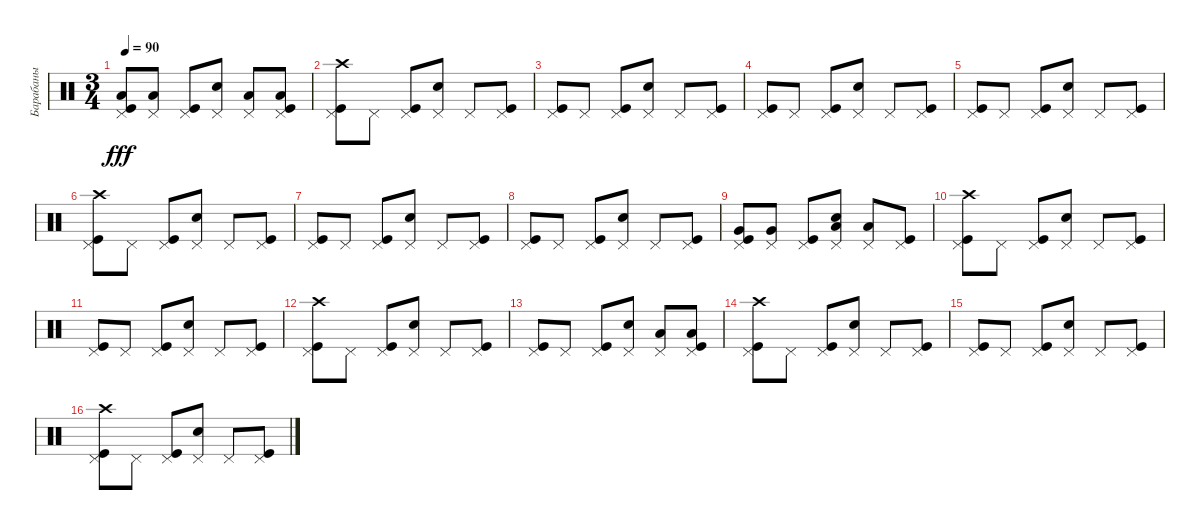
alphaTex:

\track ("Барабаны" "Барабаны") {instrument percussion}
\staff {score}
\articulation defaults
\ts (3 4)
\tempo 90
\clef neutral
\ks c
("Kick (hit)" "Pedal Hi-Hat (hit)" "Low Floor Tom (hit)").8{dy fff} ("Pedal Hi-Hat (hit)" "Low Floor Tom (hit)").8 ("Kick (hit)" "Pedal Hi-Hat (hit)").8 ("Snare (hit) 2" "Pedal Hi-Hat (hit)").8 ("Pedal Hi-Hat (hit)" "Low Tom (hit)").8 ("Kick (hit)" "Pedal Hi-Hat (hit)" "Low Tom (hit)").8 |
("Kick (hit)" "Pedal Hi-Hat (hit)" "Crash high (hit)").8 "Pedal Hi-Hat (hit)".8 ("Kick (hit)" "Pedal Hi-Hat (hit)").8 ("Snare (hit) 2" "Pedal Hi-Hat (hit)").8 "Pedal Hi-Hat (hit)".8 ("Kick (hit)" "Pedal Hi-Hat (hit)").8 |
("Kick (hit)" "Pedal Hi-Hat (hit)").8 "Pedal Hi-Hat (hit)".8 ("Kick (hit)" "Pedal Hi-Hat (hit)").8 ("Snare (hit) 2" "Pedal Hi-Hat (hit)").8 "Pedal Hi-Hat (hit)".8 ("Kick (hit)" "Pedal Hi-Hat (hit)").8 |
("Kick (hit)" "Pedal Hi-Hat (hit)").8 "Pedal Hi-Hat (hit)".8 ("Kick (hit)" "Pedal Hi-Hat (hit)").8 ("Snare (hit) 2" "Pedal Hi-Hat (hit)").8 "Pedal Hi-Hat (hit)".8 ("Kick (hit)" "Pedal Hi-Hat (hit)").8 |
("Kick (hit)" "Pedal Hi-Hat (hit)").8 "Pedal Hi-Hat (hit)".8 ("Kick (hit)" "Pedal Hi-Hat (hit)").8 ("Snare (hit) 2" "Pedal Hi-Hat (hit)").8 "Pedal Hi-Hat (hit)".8 ("Kick (hit)" "Pedal Hi-Hat (hit)").8 |
("Kick (hit)" "Pedal Hi-Hat (hit)" "Crash high (hit)").8 "Pedal Hi-Hat (hit)".8 ("Kick (hit)" "Pedal Hi-Hat (hit)").8 ("Snare (hit) 2" "Pedal Hi-Hat (hit)").8 "Pedal Hi-Hat (hit)".8 ("Kick (hit)" "Pedal Hi-Hat (hit)").8 |
("Kick (hit)" "Pedal Hi-Hat (hit)").8 "Pedal Hi-Hat (hit)".8 ("Kick (hit)" "Pedal Hi-Hat (hit)").8 ("Snare (hit) 2" "Pedal Hi-Hat (hit)").8 "Pedal Hi-Hat (hit)".8 ("Kick (hit)" "Pedal Hi-Hat (hit)").8 |
("Kick (hit)" "Pedal Hi-Hat (hit)").8 "Pedal Hi-Hat (hit)".8 ("Kick (hit)" "Pedal Hi-Hat (hit)").8 ("Snare (hit) 2" "Pedal Hi-Hat (hit)").8 "Pedal Hi-Hat (hit)".8 ("Kick (hit)" "Pedal Hi-Hat (hit)").8 |
("Kick (hit)" "Pedal Hi-Hat (hit)" "Very Low Tom (hit)").8 ("Pedal Hi-Hat (hit)" "Very Low Tom (hit)").8 ("Kick (hit)" "Pedal Hi-Hat (hit)").8 ("Snare (hit) 2" "Pedal Hi-Hat (hit)" "Low Floor Tom (hit)").8 ("Pedal Hi-Hat (hit)" "Low Floor Tom (hit)").8 ("Kick (hit)" "Pedal Hi-Hat (hit)").8 |
("Kick (hit)" "Pedal Hi-Hat (hit)" "Crash high (hit)").8 "Pedal Hi-Hat (hit)".8 ("Kick (hit)" "Pedal Hi-Hat (hit)").8 ("Snare (hit) 2" "Pedal Hi-Hat (hit)").8 "Pedal Hi-Hat (hit)".8 ("Kick (hit)" "Pedal Hi-Hat (hit)").8 |
("Kick (hit)" "Pedal Hi-Hat (hit)").8 "Pedal Hi-Hat (hit)".8 ("Kick (hit)" "Pedal Hi-Hat (hit)").8 ("Snare (hit) 2" "Pedal Hi-Hat (hit)").8 "Pedal Hi-Hat (hit)".8 ("Kick (hit)" "Pedal Hi-Hat (hit)").8 |
("Kick (hit)" "Pedal Hi-Hat (hit)" "Crash high (hit)").8 "Pedal Hi-Hat (hit)".8 ("Kick (hit)" "Pedal Hi-Hat (hit)").8 ("Snare (hit) 2" "Pedal Hi-Hat (hit)").8 "Pedal Hi-Hat (hit)".8 ("Kick (hit)" "Pedal Hi-Hat (hit)").8 |
("Kick (hit)" "Pedal Hi-Hat (hit)").8 "Pedal Hi-Hat (hit)".8 ("Kick (hit)" "Pedal Hi-Hat (hit)").8 ("Snare (hit) 2" "Pedal Hi-Hat (hit)").8 ("Pedal Hi-Hat (hit)" "Low Floor Tom (hit)").8 ("Kick (hit)" "Pedal Hi-Hat (hit)" "Low Floor Tom (hit)").8 |
("Kick (hit)" "Pedal Hi-Hat (hit)" "Crash high (hit)").8 "Pedal Hi-Hat (hit)".8 ("Kick (hit)" "Pedal Hi-Hat (hit)").8 ("Snare (hit) 2" "Pedal Hi-Hat (hit)").8 "Pedal Hi-Hat (hit)".8 ("Kick (hit)" "Pedal Hi-Hat (hit)").8 |
("Kick (hit)" "Pedal Hi-Hat (hit)").8 "Pedal Hi-Hat (hit)".8 ("Kick (hit)" "Pedal Hi-Hat (hit)").8 ("Snare (hit) 2" "Pedal Hi-Hat (hit)").8 "Pedal Hi-Hat (hit)".8 ("Kick (hit)" "Pedal Hi-Hat (hit)").8 |
("Kick (hit)" "Pedal Hi-Hat (hit)" "Crash high (hit)").8 "Pedal Hi-Hat (hit)".8 ("Kick (hit)" "Pedal Hi-Hat (hit)").8 ("Snare (hit) 2" "Pedal Hi-Hat (hit)").8 "Pedal Hi-Hat (hit)".8 ("Kick (hit)" "Pedal Hi-Hat (hit)").8
